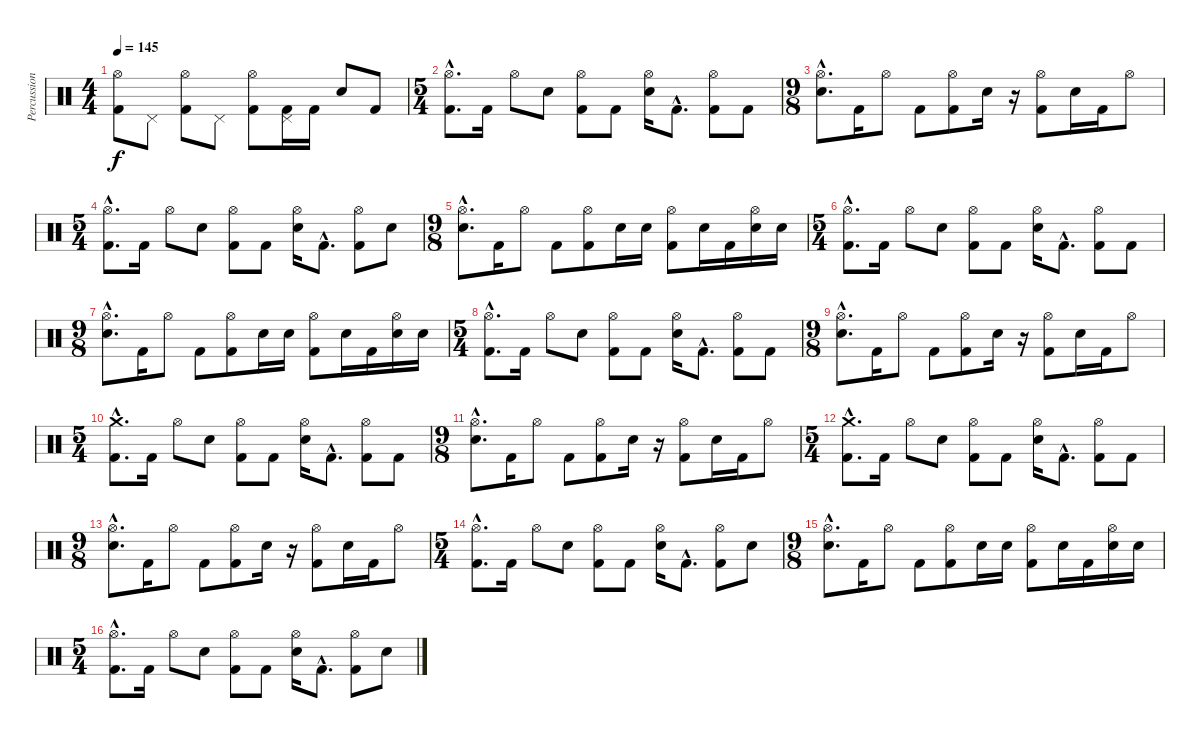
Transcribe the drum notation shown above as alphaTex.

\track ("Percussions" "Percussion") {instrument percussion}
\staff {score}
\articulation defaults
\ts (4 4)
\tempo 145
\clef neutral
\ks c
("Hi-Hat (open)" "Kick (hit) 2").8{dy f} "Pedal Hi-Hat (hit)".8 ("Hi-Hat (open)" "Kick (hit) 2").8 "Pedal Hi-Hat (hit)".8 ("Hi-Hat (open)" "Kick (hit) 2").8 ("Pedal Hi-Hat (hit)" "Kick (hit) 2").16 "Kick (hit) 2".16 "Electric Snare (hit)".8 "Kick (hit) 2".8 |
\ts (5 4)
("Hi-Hat (open)"{hac} "Kick (hit) 2"{hac}).8{d} "Kick (hit) 2".16 "Hi-Hat (open)".8 "Electric Snare (hit)".8 ("Hi-Hat (open)" "Kick (hit) 2").8 "Kick (hit) 2".8 ("Hi-Hat (open)" "Electric Snare (hit)").16 "Kick (hit) 2"{hac}.8{d} ("Hi-Hat (open)" "Kick (hit) 2").8 "Kick (hit) 2".8 |
\ts (9 8)
("Hi-Hat (open)"{hac} "Electric Snare (hit)"{hac}).8{d} "Kick (hit) 2".16 "Hi-Hat (open)".8 "Kick (hit) 2".8 ("Hi-Hat (open)" "Kick (hit) 2").8 "Electric Snare (hit)".16 r.16 ("Hi-Hat (open)" "Kick (hit) 2").8 "Electric Snare (hit)".16 "Kick (hit) 2".16 "Hi-Hat (open)".8 |
\ts (5 4)
("Hi-Hat (open)"{hac} "Kick (hit) 2"{hac}).8{d} "Kick (hit) 2".16 "Hi-Hat (open)".8 "Electric Snare (hit)".8 ("Hi-Hat (open)" "Kick (hit) 2").8 "Kick (hit) 2".8 ("Hi-Hat (open)" "Electric Snare (hit)").16 "Kick (hit) 2"{hac}.8{d} ("Hi-Hat (open)" "Kick (hit) 2").8 "Electric Snare (hit)".8 |
\ts (9 8)
("Hi-Hat (open)"{hac} "Electric Snare (hit)"{hac}).8{d} "Kick (hit) 2".16 "Hi-Hat (open)".8 "Kick (hit) 2".8 ("Hi-Hat (open)" "Kick (hit) 2").8 "Electric Snare (hit)".16 "Electric Snare (hit)".16 ("Hi-Hat (open)" "Kick (hit) 2").8 "Electric Snare (hit)".16 "Kick (hit) 2".16 ("Hi-Hat (open)" "Electric Snare (hit)").16 "Electric Snare (hit)".16 |
\ts (5 4)
("Hi-Hat (open)"{hac} "Kick (hit) 2"{hac}).8{d} "Kick (hit) 2".16 "Hi-Hat (open)".8 "Electric Snare (hit)".8 ("Hi-Hat (open)" "Kick (hit) 2").8 "Kick (hit) 2".8 ("Hi-Hat (open)" "Electric Snare (hit)").16 "Kick (hit) 2"{hac}.8{d} ("Hi-Hat (open)" "Kick (hit) 2").8 "Kick (hit) 2".8 |
\ts (9 8)
("Hi-Hat (open)"{hac} "Electric Snare (hit)"{hac}).8{d} "Kick (hit) 2".16 "Hi-Hat (open)".8 "Kick (hit) 2".8 ("Hi-Hat (open)" "Kick (hit) 2").8 "Electric Snare (hit)".16 "Electric Snare (hit)".16 ("Hi-Hat (open)" "Kick (hit) 2").8 "Electric Snare (hit)".16 "Kick (hit) 2".16 ("Hi-Hat (open)" "Electric Snare (hit)").16 "Electric Snare (hit)".16 |
\ts (5 4)
("Hi-Hat (open)"{hac} "Kick (hit) 2"{hac}).8{d} "Kick (hit) 2".16 "Hi-Hat (open)".8 "Electric Snare (hit)".8 ("Hi-Hat (open)" "Kick (hit) 2").8 "Kick (hit) 2".8 ("Hi-Hat (open)" "Electric Snare (hit)").16 "Kick (hit) 2"{hac}.8{d} ("Hi-Hat (open)" "Kick (hit) 2").8 "Kick (hit) 2".8 |
\ts (9 8)
("Hi-Hat (open)"{hac} "Electric Snare (hit)"{hac}).8{d} "Kick (hit) 2".16 "Hi-Hat (open)".8 "Kick (hit) 2".8 ("Hi-Hat (open)" "Kick (hit) 2").8 "Electric Snare (hit)".16 r.16 ("Hi-Hat (open)" "Kick (hit) 2").8 "Electric Snare (hit)".16 "Kick (hit) 2".16 "Hi-Hat (open)".8 |
\ts (5 4)
("Crash medium (hit)"{hac} "Kick (hit) 2"{hac}).8{d} "Kick (hit) 2".16 "Hi-Hat (open)".8 "Electric Snare (hit)".8 ("Hi-Hat (open)" "Kick (hit) 2").8 "Kick (hit) 2".8 ("Hi-Hat (open)" "Electric Snare (hit)").16 "Kick (hit) 2"{hac}.8{d} ("Hi-Hat (open)" "Kick (hit) 2").8 "Kick (hit) 2".8 |
\ts (9 8)
("Hi-Hat (open)"{hac} "Electric Snare (hit)"{hac}).8{d} "Kick (hit) 2".16 "Hi-Hat (open)".8 "Kick (hit) 2".8 ("Hi-Hat (open)" "Kick (hit) 2").8 "Electric Snare (hit)".16 r.16 ("Hi-Hat (open)" "Kick (hit) 2").8 "Electric Snare (hit)".16 "Kick (hit) 2".16 "Hi-Hat (open)".8 |
\ts (5 4)
("Crash medium (hit)"{hac} "Kick (hit) 2"{hac}).8{d} "Kick (hit) 2".16 "Hi-Hat (open)".8 "Electric Snare (hit)".8 ("Hi-Hat (open)" "Kick (hit) 2").8 "Kick (hit) 2".8 ("Hi-Hat (open)" "Electric Snare (hit)").16 "Kick (hit) 2"{hac}.8{d} ("Hi-Hat (open)" "Kick (hit) 2").8 "Kick (hit) 2".8 |
\ts (9 8)
("Hi-Hat (open)"{hac} "Electric Snare (hit)"{hac}).8{d} "Kick (hit) 2".16 "Hi-Hat (open)".8 "Kick (hit) 2".8 ("Hi-Hat (open)" "Kick (hit) 2").8 "Electric Snare (hit)".16 r.16 ("Hi-Hat (open)" "Kick (hit) 2").8 "Electric Snare (hit)".16 "Kick (hit) 2".16 "Hi-Hat (open)".8 |
\ts (5 4)
("Hi-Hat (open)"{hac} "Kick (hit) 2"{hac}).8{d} "Kick (hit) 2".16 "Hi-Hat (open)".8 "Electric Snare (hit)".8 ("Hi-Hat (open)" "Kick (hit) 2").8 "Kick (hit) 2".8 ("Hi-Hat (open)" "Electric Snare (hit)").16 "Kick (hit) 2"{hac}.8{d} ("Hi-Hat (open)" "Kick (hit) 2").8 "Electric Snare (hit)".8 |
\ts (9 8)
("Hi-Hat (open)"{hac} "Electric Snare (hit)"{hac}).8{d} "Kick (hit) 2".16 "Hi-Hat (open)".8 "Kick (hit) 2".8 ("Hi-Hat (open)" "Kick (hit) 2").8 "Electric Snare (hit)".16 "Electric Snare (hit)".16 ("Hi-Hat (open)" "Kick (hit) 2").8 "Electric Snare (hit)".16 "Kick (hit) 2".16 ("Hi-Hat (open)" "Electric Snare (hit)").16 "Electric Snare (hit)".16 |
\ts (5 4)
("Hi-Hat (open)"{hac} "Kick (hit) 2"{hac}).8{d} "Kick (hit) 2".16 "Hi-Hat (open)".8 "Electric Snare (hit)".8 ("Hi-Hat (open)" "Kick (hit) 2").8 "Kick (hit) 2".8 ("Hi-Hat (open)" "Electric Snare (hit)").16 "Kick (hit) 2"{hac}.8{d} ("Hi-Hat (open)" "Kick (hit) 2").8 "Electric Snare (hit)".8
